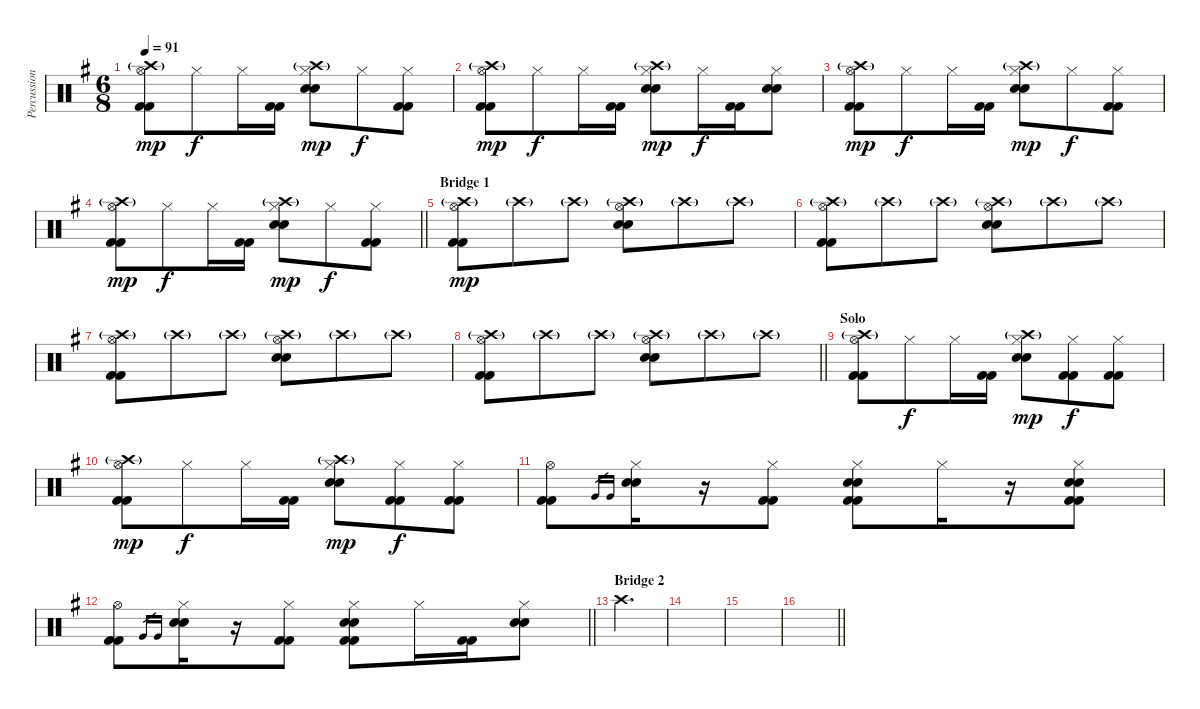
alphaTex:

\track ("Percussion" "Percussion") {instrument percussion}
\staff {score}
\articulation defaults
\ts (6 8)
\tempo 91
\clef neutral
\ks eminor
("Hi-Hat (open)" "Crash high (hit)"{g} "Kick (hit) 2" "Kick (hit) 2").8{dy mp} "Hi-Hat (closed)".8{dy f} "Hi-Hat (closed)".16 ("Kick (hit) 2" "Kick (hit) 2").16 ("Hi-Hat (closed)" "Crash high (hit)"{g} "Snare (hit) 2" "Snare (hit) 2").8{dy mp} "Hi-Hat (closed)".8{dy f} ("Hi-Hat (closed)" "Kick (hit) 2" "Kick (hit) 2").8 |
("Hi-Hat (open)" "Crash high (hit)"{g} "Kick (hit) 2" "Kick (hit) 2").8{dy mp} "Hi-Hat (closed)".8{dy f} "Hi-Hat (closed)".16 ("Kick (hit) 2" "Kick (hit) 2").16 ("Hi-Hat (closed)" "Crash high (hit)"{g} "Snare (hit) 2" "Snare (hit) 2").8{dy mp} "Hi-Hat (closed)".16{dy f} ("Kick (hit) 2" "Kick (hit) 2").16 ("Hi-Hat (closed)" "Snare (hit) 2" "Snare (hit) 2").8 |
("Hi-Hat (open)" "Crash high (hit)"{g} "Kick (hit) 2" "Kick (hit) 2").8{dy mp} "Hi-Hat (closed)".8{dy f} "Hi-Hat (closed)".16 ("Kick (hit) 2" "Kick (hit) 2").16 ("Hi-Hat (closed)" "Crash high (hit)"{g} "Snare (hit) 2" "Snare (hit) 2").8{dy mp} "Hi-Hat (closed)".8{dy f} ("Hi-Hat (closed)" "Kick (hit) 2" "Kick (hit) 2").8 |
\barLineRight lightlight
("Hi-Hat (open)" "Crash high (hit)"{g} "Kick (hit) 2" "Kick (hit) 2").8{dy mp} "Hi-Hat (closed)".8{dy f} "Hi-Hat (closed)".16 ("Kick (hit) 2" "Kick (hit) 2").16 ("Hi-Hat (closed)" "Crash high (hit)"{g} "Snare (hit) 2" "Snare (hit) 2").8{dy mp} "Hi-Hat (closed)".8{dy f} ("Hi-Hat (closed)" "Kick (hit) 2" "Kick (hit) 2").8 |
\section ("" "Bridge 1")
("Hi-Hat (open)" "Crash high (hit)"{g} "Kick (hit) 2" "Kick (hit) 2").8{dy mp} "Crash high (hit)"{g}.8 "Crash high (hit)"{g}.8 ("Hi-Hat (open)" "Crash high (hit)"{g} "Snare (hit) 2" "Snare (hit) 2").8 "Crash high (hit)"{g}.8 "Crash high (hit)"{g}.8 |
("Hi-Hat (open)" "Crash high (hit)"{g} "Kick (hit) 2" "Kick (hit) 2").8 "Crash high (hit)"{g}.8 "Crash high (hit)"{g}.8 ("Hi-Hat (open)" "Crash high (hit)"{g} "Snare (hit) 2" "Snare (hit) 2").8 "Crash high (hit)"{g}.8 "Crash high (hit)"{g}.8 |
("Hi-Hat (open)" "Crash high (hit)"{g} "Kick (hit) 2" "Kick (hit) 2").8 "Crash high (hit)"{g}.8 "Crash high (hit)"{g}.8 ("Hi-Hat (open)" "Crash high (hit)"{g} "Snare (hit) 2" "Snare (hit) 2").8 "Crash high (hit)"{g}.8 "Crash high (hit)"{g}.8 |
\barLineRight lightlight
("Hi-Hat (open)" "Crash high (hit)"{g} "Kick (hit) 2" "Kick (hit) 2").8 "Crash high (hit)"{g}.8 "Crash high (hit)"{g}.8 ("Hi-Hat (open)" "Crash high (hit)"{g} "Snare (hit) 2" "Snare (hit) 2").8 "Crash high (hit)"{g}.8 "Crash high (hit)"{g}.8 |
\section ("" "Solo")
("Hi-Hat (open)" "Crash high (hit)"{g} "Kick (hit) 2" "Kick (hit) 2").8 "Hi-Hat (closed)".8{dy f} "Hi-Hat (closed)".16 ("Kick (hit) 2" "Kick (hit) 2").16 ("Hi-Hat (closed)" "Crash high (hit)"{g} "Snare (hit) 2" "Snare (hit) 2").8{dy mp} ("Hi-Hat (closed)" "Kick (hit) 2" "Kick (hit) 2").8{dy f} ("Hi-Hat (closed)" "Kick (hit) 2" "Kick (hit) 2").8 |
("Hi-Hat (open)" "Crash high (hit)"{g} "Kick (hit) 2" "Kick (hit) 2").8{dy mp} "Hi-Hat (closed)".8{dy f} "Hi-Hat (closed)".16 ("Kick (hit) 2" "Kick (hit) 2").16 ("Hi-Hat (closed)" "Crash high (hit)"{g} "Snare (hit) 2" "Snare (hit) 2").8{dy mp} ("Hi-Hat (closed)" "Kick (hit) 2" "Kick (hit) 2").8{dy f} ("Hi-Hat (closed)" "Kick (hit) 2" "Kick (hit) 2").8 |
("Hi-Hat (open)" "Kick (hit) 2" "Kick (hit) 2").8 "Very Low Tom (hit)".16{gr} "Very Low Tom (hit)".16{gr} ("Hi-Hat (closed)" "Snare (hit) 2" "Snare (hit) 2").16 r.16 ("Hi-Hat (closed)" "Kick (hit) 2" "Kick (hit) 2").8 ("Hi-Hat (closed)" "Snare (hit) 2" "Snare (hit) 2" "Kick (hit) 2" "Kick (hit) 2").8 "Hi-Hat (closed)".16 r.16 ("Hi-Hat (closed)" "Snare (hit) 2" "Snare (hit) 2" "Kick (hit) 2" "Kick (hit) 2").8 |
\barLineRight lightlight
("Hi-Hat (open)" "Kick (hit) 2" "Kick (hit) 2").8 "Very Low Tom (hit)".16{gr} "Very Low Tom (hit)".16{gr} ("Hi-Hat (closed)" "Snare (hit) 2" "Snare (hit) 2").16 r.16 ("Hi-Hat (closed)" "Kick (hit) 2" "Kick (hit) 2").8 ("Hi-Hat (closed)" "Snare (hit) 2" "Snare (hit) 2" "Kick (hit) 2" "Kick (hit) 2").8 "Hi-Hat (closed)".16 ("Kick (hit) 2" "Kick (hit) 2").16 ("Hi-Hat (closed)" "Snare (hit) 2" "Snare (hit) 2").8 |
\section ("" "Bridge 2")
"Crash high (hit)".2{d} |
|
|
\barLineRight lightlight
